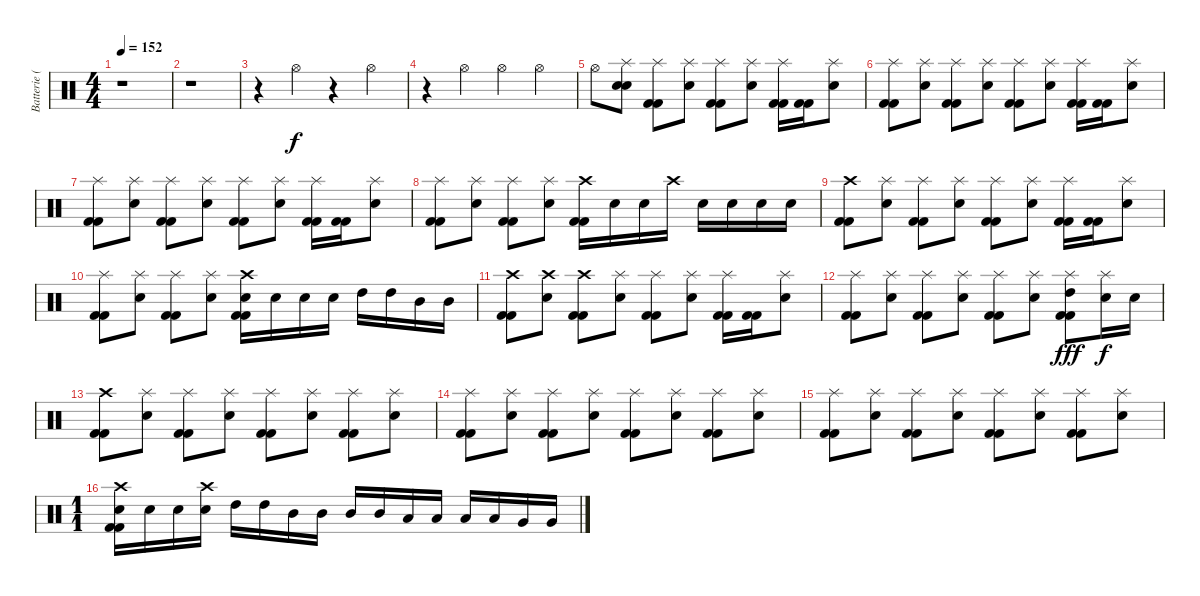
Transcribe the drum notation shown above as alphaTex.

\track ("Batterie (Ben Graves)" "Batterie (") {instrument percussion}
\staff {score}
\articulation defaults
\ts (4 4)
\tempo 152
\clef neutral
\ks c
r.1{dy f} |
r.1 |
r.4 "Hi-Hat (open)".4 r.4 "Hi-Hat (open)".4 |
r.4 "Hi-Hat (open)".4 "Hi-Hat (open)".4 "Hi-Hat (open)".4 |
"Hi-Hat (open)".8 ("Splash (hit)" "Electric Snare (hit)" "Electric Snare (hit)").8 ("Splash (hit)" "Kick (hit) 2" "Kick (hit) 2").8 ("Splash (hit)" "Electric Snare (hit)").8 ("Splash (hit)" "Kick (hit) 2" "Kick (hit) 2").8 ("Splash (hit)" "Electric Snare (hit)").8 ("Splash (hit)" "Kick (hit) 2" "Kick (hit) 2").16 ("Kick (hit) 2" "Kick (hit) 2").16 ("Splash (hit)" "Electric Snare (hit)").8 |
("Splash (hit)" "Kick (hit) 2" "Kick (hit) 2").8 ("Splash (hit)" "Electric Snare (hit)").8 ("Splash (hit)" "Kick (hit) 2" "Kick (hit) 2").8 ("Splash (hit)" "Electric Snare (hit)").8 ("Splash (hit)" "Kick (hit) 2" "Kick (hit) 2").8 ("Splash (hit)" "Electric Snare (hit)").8 ("Splash (hit)" "Kick (hit) 2" "Kick (hit) 2").16 ("Kick (hit) 2" "Kick (hit) 2").16 ("Splash (hit)" "Electric Snare (hit)").8 |
("Splash (hit)" "Kick (hit) 2" "Kick (hit) 2").8 ("Splash (hit)" "Electric Snare (hit)").8 ("Splash (hit)" "Kick (hit) 2" "Kick (hit) 2").8 ("Splash (hit)" "Electric Snare (hit)").8 ("Splash (hit)" "Kick (hit) 2" "Kick (hit) 2").8 ("Splash (hit)" "Electric Snare (hit)").8 ("Splash (hit)" "Kick (hit) 2" "Kick (hit) 2").16 ("Kick (hit) 2" "Kick (hit) 2").16 ("Splash (hit)" "Electric Snare (hit)").8 |
("Splash (hit)" "Kick (hit) 2" "Kick (hit) 2").8 ("Splash (hit)" "Electric Snare (hit)").8 ("Splash (hit)" "Kick (hit) 2" "Kick (hit) 2").8 ("Splash (hit)" "Electric Snare (hit)").8 ("Crash high (hit)" "Kick (hit) 2" "Kick (hit) 2").16 "Electric Snare (hit)".16 "Electric Snare (hit)".16 "Crash high (hit)".16 "Electric Snare (hit)".16 "Electric Snare (hit)".16 "Electric Snare (hit)".16 "Electric Snare (hit)".16 |
("Crash high (hit)" "Kick (hit) 2" "Kick (hit) 2").8 ("Splash (hit)" "Electric Snare (hit)").8 ("Splash (hit)" "Kick (hit) 2" "Kick (hit) 2").8 ("Splash (hit)" "Electric Snare (hit)").8 ("Splash (hit)" "Kick (hit) 2" "Kick (hit) 2").8 ("Splash (hit)" "Electric Snare (hit)").8 ("Splash (hit)" "Kick (hit) 2" "Kick (hit) 2").16 ("Kick (hit) 2" "Kick (hit) 2").16 ("Splash (hit)" "Electric Snare (hit)").8 |
("Splash (hit)" "Kick (hit) 2" "Kick (hit) 2").8 ("Splash (hit)" "Electric Snare (hit)").8 ("Splash (hit)" "Kick (hit) 2" "Kick (hit) 2").8 ("Splash (hit)" "Electric Snare (hit)").8 ("Crash high (hit)" "Electric Snare (hit)" "Kick (hit) 2" "Kick (hit) 2").16 "Electric Snare (hit)".16 "Electric Snare (hit)".16 "Electric Snare (hit)".16 "High Tom (hit)".16 "High Tom (hit)".16 "Mid Tom (hit)".16 "Mid Tom (hit)".16 |
("Crash high (hit)" "Kick (hit) 2" "Kick (hit) 2").8 ("Crash high (hit)" "Electric Snare (hit)").8 ("Crash high (hit)" "Kick (hit) 2" "Kick (hit) 2").8 ("Splash (hit)" "Electric Snare (hit)").8 ("Splash (hit)" "Kick (hit) 2" "Kick (hit) 2").8 ("Splash (hit)" "Electric Snare (hit)").8 ("Splash (hit)" "Kick (hit) 2" "Kick (hit) 2").16 ("Kick (hit) 2" "Kick (hit) 2").16 ("Splash (hit)" "Electric Snare (hit)").8 |
("Splash (hit)" "Kick (hit) 2" "Kick (hit) 2").8 ("Splash (hit)" "Electric Snare (hit)").8 ("Splash (hit)" "Kick (hit) 2" "Kick (hit) 2").8 ("Splash (hit)" "Electric Snare (hit)").8 ("Splash (hit)" "Kick (hit) 2" "Kick (hit) 2").8 ("Splash (hit)" "Electric Snare (hit)").8 ("Splash (hit)" "High Tom (hit)" "Kick (hit) 2" "Kick (hit) 2").8{dy fff} ("Splash (hit)" "Electric Snare (hit)").16{dy f} "Electric Snare (hit)".16 |
("Crash high (hit)" "Kick (hit) 2" "Kick (hit) 2").8 ("Splash (hit)" "Electric Snare (hit)").8 ("Splash (hit)" "Kick (hit) 2" "Kick (hit) 2").8 ("Splash (hit)" "Electric Snare (hit)").8 ("Splash (hit)" "Kick (hit) 2" "Kick (hit) 2").8 ("Splash (hit)" "Electric Snare (hit)").8 ("Splash (hit)" "Kick (hit) 2" "Kick (hit) 2").8 ("Splash (hit)" "Electric Snare (hit)").8 |
("Splash (hit)" "Kick (hit) 2" "Kick (hit) 2").8 ("Splash (hit)" "Electric Snare (hit)").8 ("Splash (hit)" "Kick (hit) 2" "Kick (hit) 2").8 ("Splash (hit)" "Electric Snare (hit)").8 ("Splash (hit)" "Kick (hit) 2" "Kick (hit) 2").8 ("Splash (hit)" "Electric Snare (hit)").8 ("Splash (hit)" "Kick (hit) 2" "Kick (hit) 2").8 ("Splash (hit)" "Electric Snare (hit)").8 |
("Splash (hit)" "Kick (hit) 2" "Kick (hit) 2").8 ("Splash (hit)" "Electric Snare (hit)").8 ("Splash (hit)" "Kick (hit) 2" "Kick (hit) 2").8 ("Splash (hit)" "Electric Snare (hit)").8 ("Splash (hit)" "Kick (hit) 2" "Kick (hit) 2").8 ("Splash (hit)" "Electric Snare (hit)").8 ("Splash (hit)" "Kick (hit) 2" "Kick (hit) 2").8 ("Splash (hit)" "Electric Snare (hit)").8 |
\ts (1 1)
("Crash high (hit)" "Electric Snare (hit)" "Kick (hit) 2" "Kick (hit) 2").16 "Electric Snare (hit)".16 "Electric Snare (hit)".16 ("Crash high (hit)" "Electric Snare (hit)").16 "High Tom (hit)".16 "High Tom (hit)".16 "Mid Tom (hit)".16 "Mid Tom (hit)".16 "Mid Tom (hit)".16 "Mid Tom (hit)".16 "Low Tom (hit)".16 "Low Tom (hit)".16 "Low Tom (hit)".16 "Low Tom (hit)".16 "Very Low Tom (hit)".16 "Very Low Tom (hit)".16
